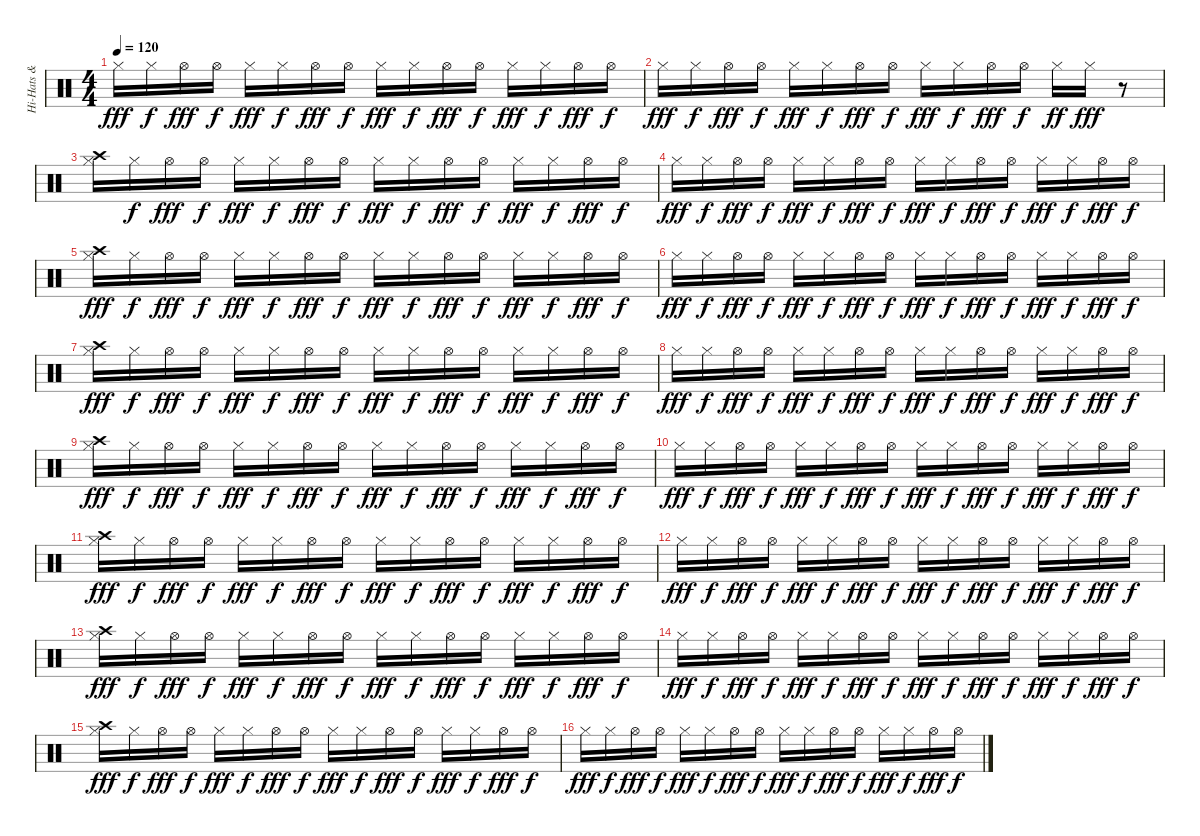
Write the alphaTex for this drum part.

\track ("Hi-Hats & Cymbal" "Hi-Hats & ") {instrument percussion}
\staff {score}
\articulation defaults
\ts (4 4)
\tempo 120
\clef neutral
\ks c "Hi-Hat (closed)".16{dy fff} "Hi-Hat (closed)".16{dy f} "Hi-Hat (open)".16{dy fff} "Hi-Hat (open)".16{dy f} "Hi-Hat (closed)".16{dy fff} "Hi-Hat (closed)".16{dy f} "Hi-Hat (open)".16{dy fff} "Hi-Hat (open)".16{dy f} "Hi-Hat (closed)".16{dy fff} "Hi-Hat (closed)".16{dy f} "Hi-Hat (open)".16{dy fff} "Hi-Hat (open)".16{dy f} "Hi-Hat (closed)".16{dy fff} "Hi-Hat (closed)".16{dy f} "Hi-Hat (open)".16{dy fff} "Hi-Hat (open)".16{dy f}
|
"Hi-Hat (closed)".16{dy fff} "Hi-Hat (closed)".16{dy f} "Hi-Hat (open)".16{dy fff} "Hi-Hat (open)".16{dy f} "Hi-Hat (closed)".16{dy fff} "Hi-Hat (closed)".16{dy f} "Hi-Hat (open)".16{dy fff} "Hi-Hat (open)".16{dy f} "Hi-Hat (closed)".16{dy fff} "Hi-Hat (closed)".16{dy f} "Hi-Hat (open)".16{dy fff} "Hi-Hat (open)".16{dy f} "Hi-Hat (closed)".16{dy ff} "Hi-Hat (closed)".16{dy fff} r.8 |
("Hi-Hat (closed)" "Crash high (hit)").16 "Hi-Hat (closed)".16{dy f} "Hi-Hat (open)".16{dy fff} "Hi-Hat (open)".16{dy f} "Hi-Hat (closed)".16{dy fff} "Hi-Hat (closed)".16{dy f} "Hi-Hat (open)".16{dy fff} "Hi-Hat (open)".16{dy f} "Hi-Hat (closed)".16{dy fff} "Hi-Hat (closed)".16{dy f} "Hi-Hat (open)".16{dy fff} "Hi-Hat (open)".16{dy f} "Hi-Hat (closed)".16{dy fff} "Hi-Hat (closed)".16{dy f} "Hi-Hat (open)".16{dy fff} "Hi-Hat (open)".16{dy f} |
"Hi-Hat (closed)".16{dy fff} "Hi-Hat (closed)".16{dy f} "Hi-Hat (open)".16{dy fff} "Hi-Hat (open)".16{dy f} "Hi-Hat (closed)".16{dy fff} "Hi-Hat (closed)".16{dy f} "Hi-Hat (open)".16{dy fff} "Hi-Hat (open)".16{dy f} "Hi-Hat (closed)".16{dy fff} "Hi-Hat (closed)".16{dy f} "Hi-Hat (open)".16{dy fff} "Hi-Hat (open)".16{dy f} "Hi-Hat (closed)".16{dy fff} "Hi-Hat (closed)".16{dy f} "Hi-Hat (open)".16{dy fff} "Hi-Hat (open)".16{dy f} |
("Hi-Hat (closed)" "Crash high (hit)").16{dy fff} "Hi-Hat (closed)".16{dy f} "Hi-Hat (open)".16{dy fff} "Hi-Hat (open)".16{dy f} "Hi-Hat (closed)".16{dy fff} "Hi-Hat (closed)".16{dy f} "Hi-Hat (open)".16{dy fff} "Hi-Hat (open)".16{dy f} "Hi-Hat (closed)".16{dy fff} "Hi-Hat (closed)".16{dy f} "Hi-Hat (open)".16{dy fff} "Hi-Hat (open)".16{dy f} "Hi-Hat (closed)".16{dy fff} "Hi-Hat (closed)".16{dy f} "Hi-Hat (open)".16{dy fff} "Hi-Hat (open)".16{dy f} |
"Hi-Hat (closed)".16{dy fff} "Hi-Hat (closed)".16{dy f} "Hi-Hat (open)".16{dy fff} "Hi-Hat (open)".16{dy f} "Hi-Hat (closed)".16{dy fff} "Hi-Hat (closed)".16{dy f} "Hi-Hat (open)".16{dy fff} "Hi-Hat (open)".16{dy f} "Hi-Hat (closed)".16{dy fff} "Hi-Hat (closed)".16{dy f} "Hi-Hat (open)".16{dy fff} "Hi-Hat (open)".16{dy f} "Hi-Hat (closed)".16{dy fff} "Hi-Hat (closed)".16{dy f} "Hi-Hat (open)".16{dy fff} "Hi-Hat (open)".16{dy f} |
("Hi-Hat (closed)" "Crash high (hit)").16{dy fff} "Hi-Hat (closed)".16{dy f} "Hi-Hat (open)".16{dy fff} "Hi-Hat (open)".16{dy f} "Hi-Hat (closed)".16{dy fff} "Hi-Hat (closed)".16{dy f} "Hi-Hat (open)".16{dy fff} "Hi-Hat (open)".16{dy f} "Hi-Hat (closed)".16{dy fff} "Hi-Hat (closed)".16{dy f} "Hi-Hat (open)".16{dy fff} "Hi-Hat (open)".16{dy f} "Hi-Hat (closed)".16{dy fff} "Hi-Hat (closed)".16{dy f} "Hi-Hat (open)".16{dy fff} "Hi-Hat (open)".16{dy f} |
"Hi-Hat (closed)".16{dy fff} "Hi-Hat (closed)".16{dy f} "Hi-Hat (open)".16{dy fff} "Hi-Hat (open)".16{dy f} "Hi-Hat (closed)".16{dy fff} "Hi-Hat (closed)".16{dy f} "Hi-Hat (open)".16{dy fff} "Hi-Hat (open)".16{dy f} "Hi-Hat (closed)".16{dy fff} "Hi-Hat (closed)".16{dy f} "Hi-Hat (open)".16{dy fff} "Hi-Hat (open)".16{dy f} "Hi-Hat (closed)".16{dy fff} "Hi-Hat (closed)".16{dy f} "Hi-Hat (open)".16{dy fff} "Hi-Hat (open)".16{dy f} |
("Hi-Hat (closed)" "Crash high (hit)").16{dy fff} "Hi-Hat (closed)".16{dy f} "Hi-Hat (open)".16{dy fff} "Hi-Hat (open)".16{dy f} "Hi-Hat (closed)".16{dy fff} "Hi-Hat (closed)".16{dy f} "Hi-Hat (open)".16{dy fff} "Hi-Hat (open)".16{dy f} "Hi-Hat (closed)".16{dy fff} "Hi-Hat (closed)".16{dy f} "Hi-Hat (open)".16{dy fff} "Hi-Hat (open)".16{dy f} "Hi-Hat (closed)".16{dy fff} "Hi-Hat (closed)".16{dy f} "Hi-Hat (open)".16{dy fff} "Hi-Hat (open)".16{dy f} |
"Hi-Hat (closed)".16{dy fff} "Hi-Hat (closed)".16{dy f} "Hi-Hat (open)".16{dy fff} "Hi-Hat (open)".16{dy f} "Hi-Hat (closed)".16{dy fff} "Hi-Hat (closed)".16{dy f} "Hi-Hat (open)".16{dy fff} "Hi-Hat (open)".16{dy f} "Hi-Hat (closed)".16{dy fff} "Hi-Hat (closed)".16{dy f} "Hi-Hat (open)".16{dy fff} "Hi-Hat (open)".16{dy f} "Hi-Hat (closed)".16{dy fff} "Hi-Hat (closed)".16{dy f} "Hi-Hat (open)".16{dy fff} "Hi-Hat (open)".16{dy f} |
("Hi-Hat (closed)" "Crash high (hit)").16{dy fff} "Hi-Hat (closed)".16{dy f} "Hi-Hat (open)".16{dy fff} "Hi-Hat (open)".16{dy f} "Hi-Hat (closed)".16{dy fff} "Hi-Hat (closed)".16{dy f} "Hi-Hat (open)".16{dy fff} "Hi-Hat (open)".16{dy f} "Hi-Hat (closed)".16{dy fff} "Hi-Hat (closed)".16{dy f} "Hi-Hat (open)".16{dy fff} "Hi-Hat (open)".16{dy f} "Hi-Hat (closed)".16{dy fff} "Hi-Hat (closed)".16{dy f} "Hi-Hat (open)".16{dy fff} "Hi-Hat (open)".16{dy f} |
"Hi-Hat (closed)".16{dy fff} "Hi-Hat (closed)".16{dy f} "Hi-Hat (open)".16{dy fff} "Hi-Hat (open)".16{dy f} "Hi-Hat (closed)".16{dy fff} "Hi-Hat (closed)".16{dy f} "Hi-Hat (open)".16{dy fff} "Hi-Hat (open)".16{dy f} "Hi-Hat (closed)".16{dy fff} "Hi-Hat (closed)".16{dy f} "Hi-Hat (open)".16{dy fff} "Hi-Hat (open)".16{dy f} "Hi-Hat (closed)".16{dy fff} "Hi-Hat (closed)".16{dy f} "Hi-Hat (open)".16{dy fff} "Hi-Hat (open)".16{dy f} |
("Hi-Hat (closed)" "Crash high (hit)").16{dy fff} "Hi-Hat (closed)".16{dy f} "Hi-Hat (open)".16{dy fff} "Hi-Hat (open)".16{dy f} "Hi-Hat (closed)".16{dy fff} "Hi-Hat (closed)".16{dy f} "Hi-Hat (open)".16{dy fff} "Hi-Hat (open)".16{dy f} "Hi-Hat (closed)".16{dy fff} "Hi-Hat (closed)".16{dy f} "Hi-Hat (open)".16{dy fff} "Hi-Hat (open)".16{dy f} "Hi-Hat (closed)".16{dy fff} "Hi-Hat (closed)".16{dy f} "Hi-Hat (open)".16{dy fff} "Hi-Hat (open)".16{dy f} |
"Hi-Hat (closed)".16{dy fff} "Hi-Hat (closed)".16{dy f} "Hi-Hat (open)".16{dy fff} "Hi-Hat (open)".16{dy f} "Hi-Hat (closed)".16{dy fff} "Hi-Hat (closed)".16{dy f} "Hi-Hat (open)".16{dy fff} "Hi-Hat (open)".16{dy f} "Hi-Hat (closed)".16{dy fff} "Hi-Hat (closed)".16{dy f} "Hi-Hat (open)".16{dy fff} "Hi-Hat (open)".16{dy f} "Hi-Hat (closed)".16{dy fff} "Hi-Hat (closed)".16{dy f} "Hi-Hat (open)".16{dy fff} "Hi-Hat (open)".16{dy f} |
("Hi-Hat (closed)" "Crash high (hit)").16{dy fff} "Hi-Hat (closed)".16{dy f} "Hi-Hat (open)".16{dy fff} "Hi-Hat (open)".16{dy f} "Hi-Hat (closed)".16{dy fff} "Hi-Hat (closed)".16{dy f} "Hi-Hat (open)".16{dy fff} "Hi-Hat (open)".16{dy f} "Hi-Hat (closed)".16{dy fff} "Hi-Hat (closed)".16{dy f} "Hi-Hat (open)".16{dy fff} "Hi-Hat (open)".16{dy f} "Hi-Hat (closed)".16{dy fff} "Hi-Hat (closed)".16{dy f} "Hi-Hat (open)".16{dy fff} "Hi-Hat (open)".16{dy f} |
"Hi-Hat (closed)".16{dy fff} "Hi-Hat (closed)".16{dy f} "Hi-Hat (open)".16{dy fff} "Hi-Hat (open)".16{dy f} "Hi-Hat (closed)".16{dy fff} "Hi-Hat (closed)".16{dy f} "Hi-Hat (open)".16{dy fff} "Hi-Hat (open)".16{dy f} "Hi-Hat (closed)".16{dy fff} "Hi-Hat (closed)".16{dy f} "Hi-Hat (open)".16{dy fff} "Hi-Hat (open)".16{dy f} "Hi-Hat (closed)".16{dy fff} "Hi-Hat (closed)".16{dy f} "Hi-Hat (open)".16{dy fff} "Hi-Hat (open)".16{dy f}
